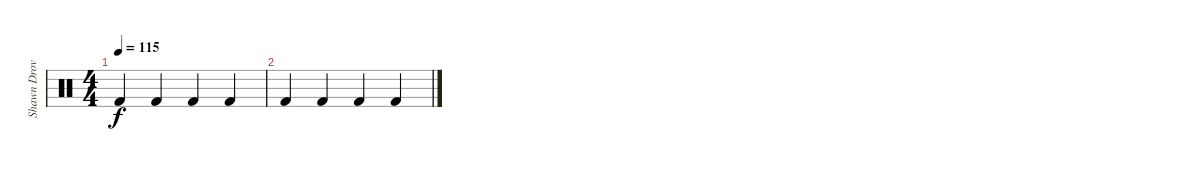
\track ("Shawn Drover" "Shawn Drov") {instrument percussion}
\staff {score}
\articulation defaults
\ts (4 4)
\tempo 115
\clef neutral
\ks c "Kick (hit) 2".4{dy f} "Kick (hit) 2".4 "Kick (hit) 2".4 "Kick (hit) 2".4
|
"Kick (hit) 2".4 "Kick (hit) 2".4 "Kick (hit) 2".4 "Kick (hit) 2".4
